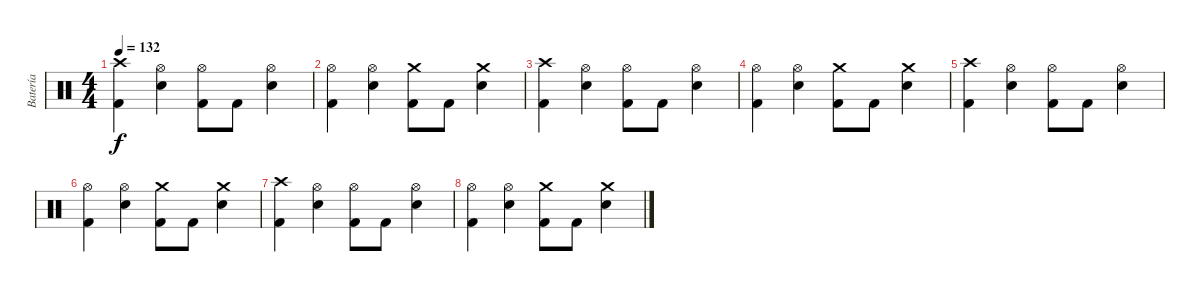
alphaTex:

\track ("Batería" "Batería") {instrument percussion}
\staff {score}
\articulation defaults
\ts (4 4)
\tempo 132
\clef neutral
\ks c
("Crash high (hit)" "Kick (hit) 2").4{dy f volume 8} ("Hi-Hat (open)" "Electric Snare (hit)").4 ("Kick (hit) 2" "Hi-Hat (open)").8 "Kick (hit) 2".8 ("Hi-Hat (open)" "Electric Snare (hit)").4 |
("Hi-Hat (open)" "Kick (hit) 2").4 ("Hi-Hat (open)" "Electric Snare (hit)").4 ("Kick (hit) 2" "Crash medium (hit)").8 "Kick (hit) 2".8 ("Crash medium (hit)" "Electric Snare (hit)").4 |
("Crash high (hit)" "Kick (hit) 2").4 ("Hi-Hat (open)" "Electric Snare (hit)").4 ("Kick (hit) 2" "Hi-Hat (open)").8 "Kick (hit) 2".8 ("Hi-Hat (open)" "Electric Snare (hit)").4 |
("Hi-Hat (open)" "Kick (hit) 2").4 ("Hi-Hat (open)" "Electric Snare (hit)").4 ("Kick (hit) 2" "Crash medium (hit)").8 "Kick (hit) 2".8 ("Crash medium (hit)" "Electric Snare (hit)").4 |
("Crash high (hit)" "Kick (hit) 2").4{volume 0} ("Hi-Hat (open)" "Electric Snare (hit)").4 ("Kick (hit) 2" "Hi-Hat (open)").8 "Kick (hit) 2".8 ("Hi-Hat (open)" "Electric Snare (hit)").4 |
("Hi-Hat (open)" "Kick (hit) 2").4 ("Hi-Hat (open)" "Electric Snare (hit)").4 ("Kick (hit) 2" "Crash medium (hit)").8 "Kick (hit) 2".8 ("Crash medium (hit)" "Electric Snare (hit)").4 |
("Crash high (hit)" "Kick (hit) 2").4 ("Hi-Hat (open)" "Electric Snare (hit)").4 ("Kick (hit) 2" "Hi-Hat (open)").8 "Kick (hit) 2".8 ("Hi-Hat (open)" "Electric Snare (hit)").4 |
("Hi-Hat (open)" "Kick (hit) 2").4 ("Hi-Hat (open)" "Electric Snare (hit)").4 ("Kick (hit) 2" "Crash medium (hit)").8 "Kick (hit) 2".8 ("Crash medium (hit)" "Electric Snare (hit)").4
